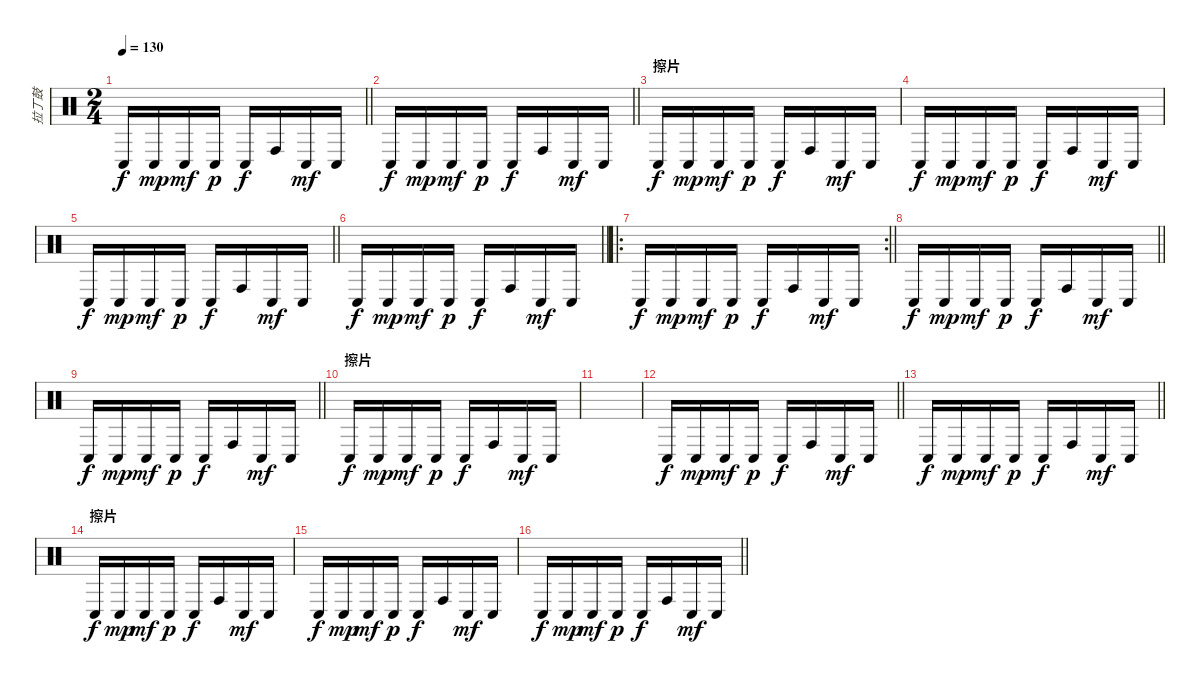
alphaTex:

\track ("拉丁鼓" "拉丁鼓") {instrument percussion}
\staff {score}
\articulation defaults
\ts (2 4)
\tempo 130
\clef neutral
\barLineRight lightlight
\ks c "Conga low (hit)".16{dy f} "Conga low (hit)".16{dy mp} "Conga low (hit)".16{dy mf} "Conga low (hit)".16{dy p} "Conga low (hit)".16{dy f} "Conga high (hit)".16 "Conga low (hit)".16{dy mf} "Conga low (hit)".16
|
\barLineRight lightlight "Conga low (hit)".16{dy f} "Conga low (hit)".16{dy mp} "Conga low (hit)".16{dy mf} "Conga low (hit)".16{dy p} "Conga low (hit)".16{dy f} "Conga high (hit)".16 "Conga low (hit)".16{dy mf} "Conga low (hit)".16
|
\section ("" "擦片")
"Conga low (hit)".16{dy f} "Conga low (hit)".16{dy mp} "Conga low (hit)".16{dy mf} "Conga low (hit)".16{dy p} "Conga low (hit)".16{dy f} "Conga high (hit)".16 "Conga low (hit)".16{dy mf} "Conga low (hit)".16 |
"Conga low (hit)".16{dy f} "Conga low (hit)".16{dy mp} "Conga low (hit)".16{dy mf} "Conga low (hit)".16{dy p} "Conga low (hit)".16{dy f} "Conga high (hit)".16 "Conga low (hit)".16{dy mf} "Conga low (hit)".16 |
\barLineRight lightlight "Conga low (hit)".16{dy f} "Conga low (hit)".16{dy mp} "Conga low (hit)".16{dy mf} "Conga low (hit)".16{dy p} "Conga low (hit)".16{dy f} "Conga high (hit)".16 "Conga low (hit)".16{dy mf} "Conga low (hit)".16
|
\barLineRight lightlight "Conga low (hit)".16{dy f} "Conga low (hit)".16{dy mp} "Conga low (hit)".16{dy mf} "Conga low (hit)".16{dy p} "Conga low (hit)".16{dy f} "Conga high (hit)".16 "Conga low (hit)".16{dy mf} "Conga low (hit)".16
|
\ro
\rc 2
\barLineRight lightlight "Conga low (hit)".16{dy f} "Conga low (hit)".16{dy mp} "Conga low (hit)".16{dy mf} "Conga low (hit)".16{dy p} "Conga low (hit)".16{dy f} "Conga high (hit)".16 "Conga low (hit)".16{dy mf} "Conga low (hit)".16
|
\barLineRight lightlight "Conga low (hit)".16{dy f} "Conga low (hit)".16{dy mp} "Conga low (hit)".16{dy mf} "Conga low (hit)".16{dy p} "Conga low (hit)".16{dy f} "Conga high (hit)".16 "Conga low (hit)".16{dy mf} "Conga low (hit)".16
|
\barLineRight lightlight "Conga low (hit)".16{dy f} "Conga low (hit)".16{dy mp} "Conga low (hit)".16{dy mf} "Conga low (hit)".16{dy p} "Conga low (hit)".16{dy f} "Conga high (hit)".16 "Conga low (hit)".16{dy mf} "Conga low (hit)".16
|
\section ("" "擦片")
"Conga low (hit)".16{dy f} "Conga low (hit)".16{dy mp} "Conga low (hit)".16{dy mf} "Conga low (hit)".16{dy p} "Conga low (hit)".16{dy f} "Conga high (hit)".16 "Conga low (hit)".16{dy mf} "Conga low (hit)".16 |
|
\barLineRight lightlight "Conga low (hit)".16{dy f} "Conga low (hit)".16{dy mp} "Conga low (hit)".16{dy mf} "Conga low (hit)".16{dy p} "Conga low (hit)".16{dy f} "Conga high (hit)".16 "Conga low (hit)".16{dy mf} "Conga low (hit)".16
|
\barLineRight lightlight "Conga low (hit)".16{dy f} "Conga low (hit)".16{dy mp} "Conga low (hit)".16{dy mf} "Conga low (hit)".16{dy p} "Conga low (hit)".16{dy f} "Conga high (hit)".16 "Conga low (hit)".16{dy mf} "Conga low (hit)".16
|
\section ("" "擦片")
"Conga low (hit)".16{dy f} "Conga low (hit)".16{dy mp} "Conga low (hit)".16{dy mf} "Conga low (hit)".16{dy p} "Conga low (hit)".16{dy f} "Conga high (hit)".16 "Conga low (hit)".16{dy mf} "Conga low (hit)".16 |
"Conga low (hit)".16{dy f} "Conga low (hit)".16{dy mp} "Conga low (hit)".16{dy mf} "Conga low (hit)".16{dy p} "Conga low (hit)".16{dy f} "Conga high (hit)".16 "Conga low (hit)".16{dy mf} "Conga low (hit)".16 |
\barLineRight lightlight "Conga low (hit)".16{dy f} "Conga low (hit)".16{dy mp} "Conga low (hit)".16{dy mf} "Conga low (hit)".16{dy p} "Conga low (hit)".16{dy f} "Conga high (hit)".16 "Conga low (hit)".16{dy mf} "Conga low (hit)".16
